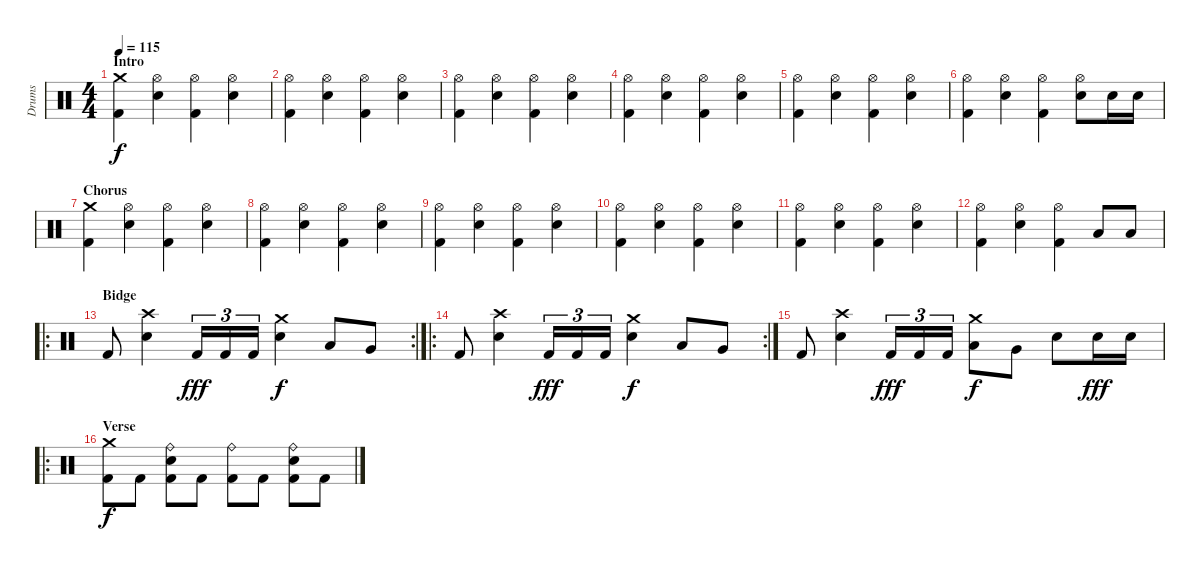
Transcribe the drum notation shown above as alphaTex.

\track ("Drums" "Drums") {instrument percussion}
\staff {score}
\articulation defaults
\ts (4 4)
\section ("" "Intro")
\tempo 115
\clef neutral
\ks c
("Crash medium (hit)" "Kick (hit) 2").4{dy f} ("Hi-Hat (open)" "Electric Snare (hit)").4 ("Hi-Hat (open)" "Kick (hit) 2").4 ("Hi-Hat (open)" "Electric Snare (hit)").4 |
("Hi-Hat (open)" "Kick (hit) 2").4 ("Hi-Hat (open)" "Electric Snare (hit)").4 ("Hi-Hat (open)" "Kick (hit) 2").4 ("Hi-Hat (open)" "Electric Snare (hit)").4 |
("Hi-Hat (open)" "Kick (hit) 2").4 ("Hi-Hat (open)" "Electric Snare (hit)").4 ("Hi-Hat (open)" "Kick (hit) 2").4 ("Hi-Hat (open)" "Electric Snare (hit)").4 |
("Hi-Hat (open)" "Kick (hit) 2").4 ("Hi-Hat (open)" "Electric Snare (hit)").4 ("Hi-Hat (open)" "Kick (hit) 2").4 ("Hi-Hat (open)" "Electric Snare (hit)").4 |
("Hi-Hat (open)" "Kick (hit) 2").4 ("Hi-Hat (open)" "Electric Snare (hit)").4 ("Hi-Hat (open)" "Kick (hit) 2").4 ("Hi-Hat (open)" "Electric Snare (hit)").4 |
("Hi-Hat (open)" "Kick (hit) 2").4 ("Hi-Hat (open)" "Electric Snare (hit)").4 ("Hi-Hat (open)" "Kick (hit) 2").4 ("Hi-Hat (open)" "Electric Snare (hit)").8 "Electric Snare (hit)".16 "Electric Snare (hit)".16 |
\section ("" "Chorus")
("Crash medium (hit)" "Kick (hit) 2").4 ("Hi-Hat (open)" "Electric Snare (hit)").4 ("Hi-Hat (open)" "Kick (hit) 2").4 ("Hi-Hat (open)" "Electric Snare (hit)").4 |
("Hi-Hat (open)" "Kick (hit) 2").4 ("Hi-Hat (open)" "Electric Snare (hit)").4 ("Hi-Hat (open)" "Kick (hit) 2").4 ("Hi-Hat (open)" "Electric Snare (hit)").4 |
("Hi-Hat (open)" "Kick (hit) 2").4 ("Hi-Hat (open)" "Electric Snare (hit)").4 ("Hi-Hat (open)" "Kick (hit) 2").4 ("Hi-Hat (open)" "Electric Snare (hit)").4 |
("Hi-Hat (open)" "Kick (hit) 2").4 ("Hi-Hat (open)" "Electric Snare (hit)").4 ("Hi-Hat (open)" "Kick (hit) 2").4 ("Hi-Hat (open)" "Electric Snare (hit)").4 |
("Hi-Hat (open)" "Kick (hit) 2").4 ("Hi-Hat (open)" "Electric Snare (hit)").4 ("Hi-Hat (open)" "Kick (hit) 2").4 ("Hi-Hat (open)" "Electric Snare (hit)").4 |
("Hi-Hat (open)" "Kick (hit) 2").4 ("Hi-Hat (open)" "Electric Snare (hit)").4 ("Hi-Hat (open)" "Kick (hit) 2").4 "Low Floor Tom (hit)".8 "Low Floor Tom (hit)".8 |
\ro
\rc 2
\section ("" "Bidge")
"Kick (hit) 2".8 ("Crash high (hit)" "Electric Snare (hit)").4 "Kick (hit) 2".16{tu (3 2) dy fff} "Kick (hit) 2".16{tu (3 2)} "Kick (hit) 2".16{tu (3 2)} ("Crash medium (hit)" "Electric Snare (hit)").4{dy f} "Low Floor Tom (hit)".8 "Very Low Tom (hit)".8 |
\ro
\rc 2 "Kick (hit) 2".8
("Crash high (hit)" "Electric Snare (hit)").4 "Kick (hit) 2".16{tu (3 2) dy fff} "Kick (hit) 2".16{tu (3 2)} "Kick (hit) 2".16{tu (3 2)} ("Crash medium (hit)" "Electric Snare (hit)").4{dy f} "Low Floor Tom (hit)".8 "Very Low Tom (hit)".8 |
"Kick (hit) 2".8 ("Crash high (hit)" "Electric Snare (hit)").4 "Kick (hit) 2".16{tu (3 2) dy fff} "Kick (hit) 2".16{tu (3 2)} "Kick (hit) 2".16{tu (3 2)} ("Crash medium (hit)" "Low Floor Tom (hit)").8{dy f} "Very Low Tom (hit)".8 "Electric Snare (hit)".8 "Electric Snare (hit)".16{dy fff} "Electric Snare (hit)".16 |
\ro
\section ("" "Verse")
("Crash medium (hit)" "Kick (hit) 2").8{dy f} "Kick (hit) 2".8 ("Ride (bell)" "Kick (hit) 2" "Electric Snare (hit)").8 "Kick (hit) 2".8 ("Ride (bell)" "Kick (hit) 2").8 "Kick (hit) 2".8 ("Ride (bell)" "Kick (hit) 2" "Electric Snare (hit)").8 "Kick (hit) 2".8
